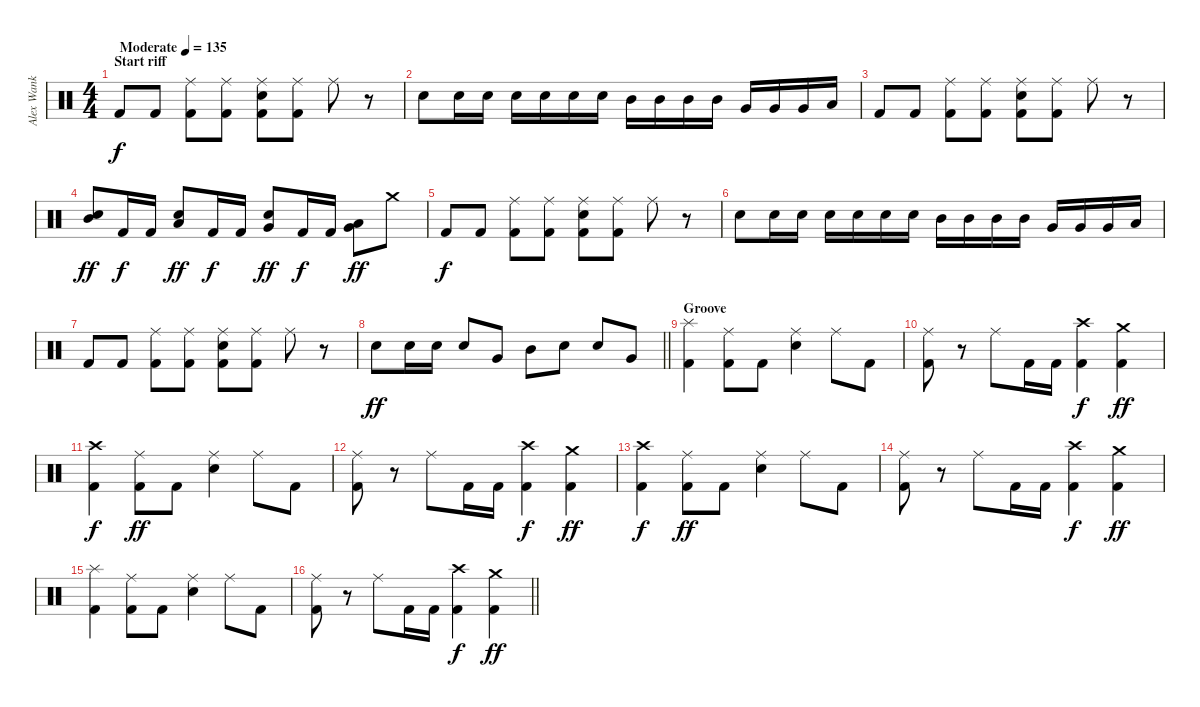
\track ("Alex Wank" "Alex Wank") {instrument percussion}
\staff {score}
\articulation defaults
\ts (4 4)
\section ("" "Start riff")
\tempo (135 "Moderate")
\clef neutral
\ks c "Kick (hit) 2".8{dy f} "Kick (hit) 2".8
("Kick (hit) 2" "Ride (middle)").8 ("Kick (hit) 2" "Ride (middle)").8 ("Kick (hit) 2" "Ride (middle)" "Snare (hit) 2").8 ("Kick (hit) 2" "Ride (middle)").8 "Ride (middle)".8 r.8 |
"Snare (hit) 2".8 "Snare (hit) 2".16 "Snare (hit) 2".16 "Snare (hit) 2".16 "Snare (hit) 2".16 "Snare (hit) 2".16 "Snare (hit) 2".16 "Mid Tom (hit)".16 "Mid Tom (hit)".16 "Mid Tom (hit)".16 "Mid Tom (hit)".16 "Very Low Tom (hit)".16 "Very Low Tom (hit)".16 "Very Low Tom (hit)".16 "Low Floor Tom (hit)".16 |
"Kick (hit) 2".8 "Kick (hit) 2".8 ("Kick (hit) 2" "Ride (middle)").8 ("Kick (hit) 2" "Ride (middle)").8 ("Kick (hit) 2" "Ride (middle)" "Snare (hit) 2").8 ("Kick (hit) 2" "Ride (middle)").8 "Ride (middle)".8 r.8 |
("Snare (hit) 2" "Mid Tom (hit)").8{dy ff} "Kick (hit) 2".16{dy f} "Kick (hit) 2".16 ("Snare (hit) 2" "Low Tom (hit)").8{dy ff} "Kick (hit) 2".16{dy f} "Kick (hit) 2".16 ("Snare (hit) 2" "Very Low Tom (hit)").8{dy ff} "Kick (hit) 2".16{dy f} "Kick (hit) 2".16 ("Very Low Tom (hit)" "Low Floor Tom (hit)").8{dy ff} "Crash medium (hit)".8 |
"Kick (hit) 2".8{dy f} "Kick (hit) 2".8 ("Kick (hit) 2" "Ride (middle)").8 ("Kick (hit) 2" "Ride (middle)").8 ("Kick (hit) 2" "Ride (middle)" "Snare (hit) 2").8 ("Kick (hit) 2" "Ride (middle)").8 "Ride (middle)".8 r.8 |
"Snare (hit) 2".8 "Snare (hit) 2".16 "Snare (hit) 2".16 "Snare (hit) 2".16 "Snare (hit) 2".16 "Snare (hit) 2".16 "Snare (hit) 2".16 "Mid Tom (hit)".16 "Mid Tom (hit)".16 "Mid Tom (hit)".16 "Mid Tom (hit)".16 "Very Low Tom (hit)".16 "Very Low Tom (hit)".16 "Very Low Tom (hit)".16 "Low Floor Tom (hit)".16 |
"Kick (hit) 2".8 "Kick (hit) 2".8 ("Kick (hit) 2" "Ride (middle)").8 ("Kick (hit) 2" "Ride (middle)").8 ("Kick (hit) 2" "Ride (middle)" "Snare (hit) 2").8 ("Kick (hit) 2" "Ride (middle)").8 "Ride (middle)".8 r.8 |
\barLineRight lightlight "Snare (hit) 2".8{dy ff} "Snare (hit) 2".16 "Snare (hit) 2".16 "Snare (hit) 2".8 "Very Low Tom (hit)".8 "Mid Tom (hit)".8 "Snare (hit) 2".8 "Snare (hit) 2".8 "Very Low Tom (hit)".8
|
\section ("" "Groove")
("Kick (hit) 2" "Splash (hit)").4 ("Kick (hit) 2" "Ride (middle)").8 "Kick (hit) 2".8 ("Ride (middle)" "Snare (hit) 2").4 "Ride (middle)".8 "Kick (hit) 2".8 |
("Kick (hit) 2" "Ride (middle)").8 r.8 "Ride (middle)".8 "Kick (hit) 2".16 "Kick (hit) 2".16 ("Kick (hit) 2" "Crash high (hit)").4{dy f} ("Kick (hit) 2" "Crash medium (hit)").4{dy ff} |
("Kick (hit) 2" "Crash high (hit)").4{dy f} ("Kick (hit) 2" "Ride (middle)").8{dy ff} "Kick (hit) 2".8 ("Ride (middle)" "Snare (hit) 2").4 "Ride (middle)".8 "Kick (hit) 2".8 |
("Kick (hit) 2" "Ride (middle)").8 r.8 "Ride (middle)".8 "Kick (hit) 2".16 "Kick (hit) 2".16 ("Kick (hit) 2" "Crash high (hit)").4{dy f} ("Kick (hit) 2" "Crash medium (hit)").4{dy ff} |
("Kick (hit) 2" "Crash high (hit)").4{dy f} ("Kick (hit) 2" "Ride (middle)").8{dy ff} "Kick (hit) 2".8 ("Ride (middle)" "Snare (hit) 2").4 "Ride (middle)".8 "Kick (hit) 2".8 |
("Kick (hit) 2" "Ride (middle)").8 r.8 "Ride (middle)".8 "Kick (hit) 2".16 "Kick (hit) 2".16 ("Kick (hit) 2" "Crash high (hit)").4{dy f} ("Kick (hit) 2" "Crash medium (hit)").4{dy ff} |
("Kick (hit) 2" "Splash (hit)").4 ("Kick (hit) 2" "Ride (middle)").8 "Kick (hit) 2".8 ("Ride (middle)" "Snare (hit) 2").4 "Ride (middle)".8 "Kick (hit) 2".8 |
\barLineRight lightlight
("Kick (hit) 2" "Ride (middle)").8 r.8 "Ride (middle)".8 "Kick (hit) 2".16 "Kick (hit) 2".16 ("Kick (hit) 2" "Crash high (hit)").4{dy f} ("Kick (hit) 2" "Crash medium (hit)").4{dy ff}
